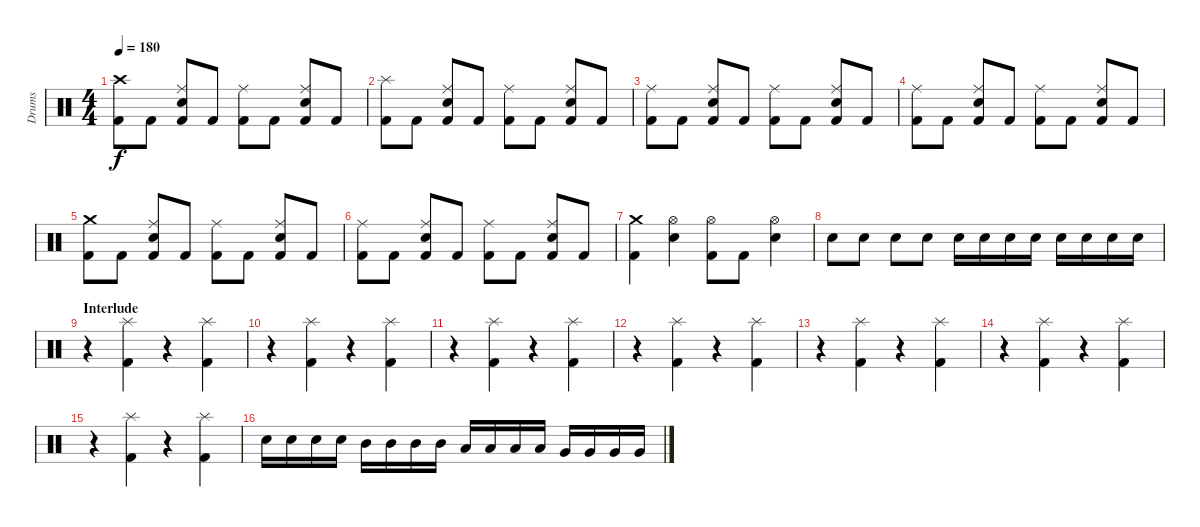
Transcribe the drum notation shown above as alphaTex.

\track ("Drums" "Drums") {instrument percussion}
\staff {score}
\articulation defaults
\ts (4 4)
\tempo 180
\clef neutral
\ks c
("Crash high (hit)" "Kick (hit) 2").8{dy f} "Kick (hit) 2".8 ("Ride (middle)" "Electric Snare (hit)" "Kick (hit) 2").8 "Kick (hit) 2".8 ("Ride (middle)" "Kick (hit) 2").8 "Kick (hit) 2".8 ("Ride (middle)" "Electric Snare (hit)" "Kick (hit) 2").8 "Kick (hit) 2".8 |
("Splash (hit)" "Kick (hit) 2").8 "Kick (hit) 2".8 ("Ride (middle)" "Electric Snare (hit)" "Kick (hit) 2").8 "Kick (hit) 2".8 ("Ride (middle)" "Kick (hit) 2").8 "Kick (hit) 2".8 ("Ride (middle)" "Electric Snare (hit)" "Kick (hit) 2").8 "Kick (hit) 2".8 |
("Ride (middle)" "Kick (hit) 2").8 "Kick (hit) 2".8 ("Ride (middle)" "Electric Snare (hit)" "Kick (hit) 2").8 "Kick (hit) 2".8 ("Ride (middle)" "Kick (hit) 2").8 "Kick (hit) 2".8 ("Ride (middle)" "Electric Snare (hit)" "Kick (hit) 2").8 "Kick (hit) 2".8 |
("Ride (middle)" "Kick (hit) 2").8 "Kick (hit) 2".8 ("Ride (middle)" "Electric Snare (hit)" "Kick (hit) 2").8 "Kick (hit) 2".8 ("Ride (middle)" "Kick (hit) 2").8 "Kick (hit) 2".8 ("Ride (middle)" "Electric Snare (hit)" "Kick (hit) 2").8 "Kick (hit) 2".8 |
("Crash medium (hit)" "Kick (hit) 2").8 "Kick (hit) 2".8 ("Ride (middle)" "Electric Snare (hit)" "Kick (hit) 2").8 "Kick (hit) 2".8 ("Ride (middle)" "Kick (hit) 2").8 "Kick (hit) 2".8 ("Ride (middle)" "Electric Snare (hit)" "Kick (hit) 2").8 "Kick (hit) 2".8 |
("Ride (middle)" "Kick (hit) 2").8 "Kick (hit) 2".8 ("Ride (middle)" "Electric Snare (hit)" "Kick (hit) 2").8 "Kick (hit) 2".8 ("Ride (middle)" "Kick (hit) 2").8 "Kick (hit) 2".8 ("Ride (middle)" "Electric Snare (hit)" "Kick (hit) 2").8 "Kick (hit) 2".8 |
("Crash medium (hit)" "Kick (hit) 2").4 ("Hi-Hat (open)" "Electric Snare (hit)").4 ("Hi-Hat (open)" "Kick (hit) 2").8 "Kick (hit) 2".8 ("Hi-Hat (open)" "Electric Snare (hit)").4 |
"Electric Snare (hit)".8 "Electric Snare (hit)".8 "Electric Snare (hit)".8 "Electric Snare (hit)".8 "Snare (hit) 2".16 "Snare (hit) 2".16 "Snare (hit) 2".16 "Snare (hit) 2".16 "Snare (hit) 2".16 "Snare (hit) 2".16 "Snare (hit) 2".16 "Electric Snare (hit)".16 |
\section ("" "Interlude")
r.4 ("Splash (hit)" "Kick (hit) 2").4 r.4 ("Splash (hit)" "Kick (hit) 2").4 |
r.4 ("Splash (hit)" "Kick (hit) 2").4 r.4 ("Splash (hit)" "Kick (hit) 2").4 |
r.4 ("Splash (hit)" "Kick (hit) 2").4 r.4 ("Splash (hit)" "Kick (hit) 2").4 |
r.4 ("Splash (hit)" "Kick (hit) 2").4 r.4 ("Splash (hit)" "Kick (hit) 2").4 |
r.4 ("Splash (hit)" "Kick (hit) 2").4 r.4 ("Splash (hit)" "Kick (hit) 2").4 |
r.4 ("Splash (hit)" "Kick (hit) 2").4 r.4 ("Splash (hit)" "Kick (hit) 2").4 |
r.4 ("Splash (hit)" "Kick (hit) 2").4 r.4 ("Splash (hit)" "Kick (hit) 2").4 |
"Snare (hit) 2".16 "Snare (hit) 2".16 "Snare (hit) 2".16 "Electric Snare (hit)".16 "Mid Tom (hit)".16 "Mid Tom (hit)".16 "Mid Tom (hit)".16 "Mid Tom (hit)".16 "Low Tom (hit)".16 "Low Tom (hit)".16 "Low Tom (hit)".16 "Low Tom (hit)".16 "Very Low Tom (hit)".16 "Very Low Tom (hit)".16 "Very Low Tom (hit)".16 "Very Low Tom (hit)".16
